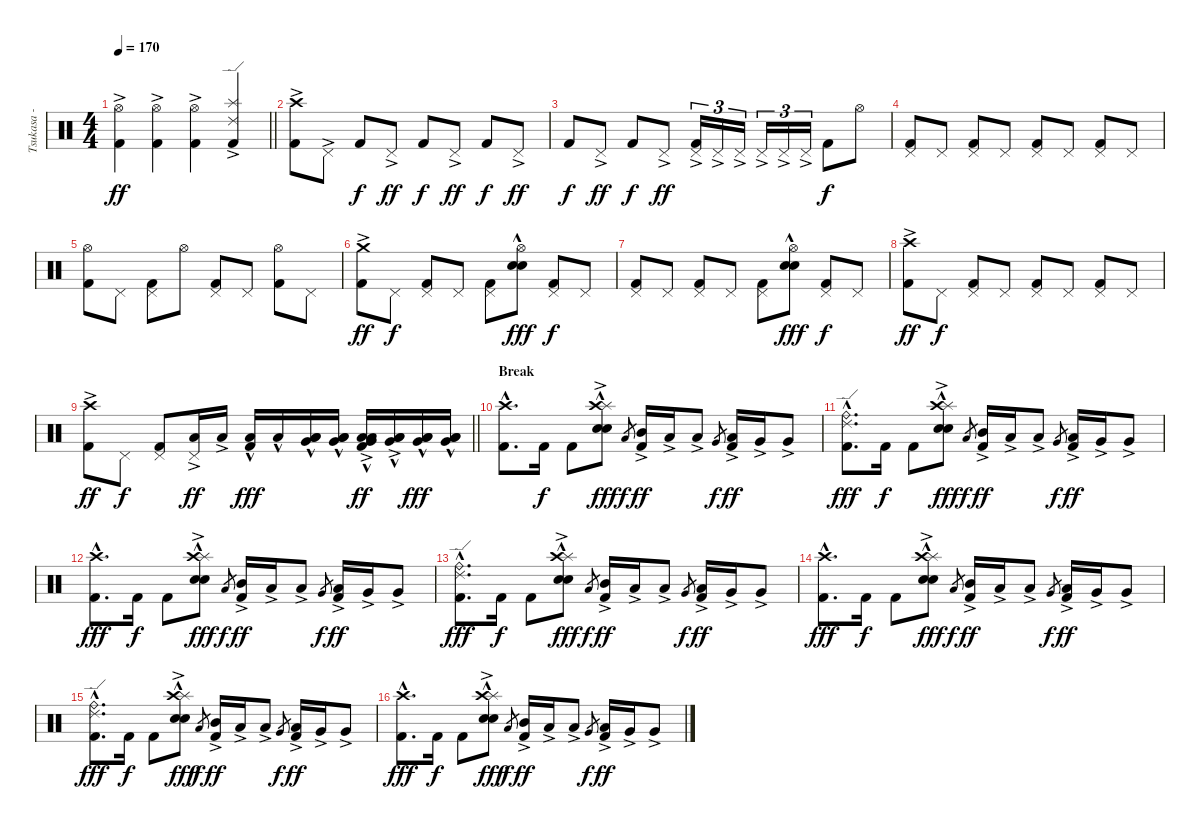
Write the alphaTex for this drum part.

\track ("Tsukasa - Drums" "Tsukasa - ") {instrument percussion}
\staff {score}
\articulation defaults
\ts (4 4)
\tempo 170
\clef neutral
\barLineRight lightlight
\ks c
("Hi-Hat (open)"{ac} "Kick (hit) 2").4{dy ff} ("Hi-Hat (open)"{ac} "Kick (hit) 2").4 ("Hi-Hat (open)"{ac} "Kick (hit) 2").4 ("Splash (hit)"{ac} "Ride (edge) 2"{ac} "Kick (hit) 2").4 |
\section ("" "")
("Crash high (hit)"{ac} "Kick (hit) 2").8 "Pedal Hi-Hat (hit)"{ac}.8 "Kick (hit) 2".8{dy f} "Pedal Hi-Hat (hit)"{ac}.8{dy ff} "Kick (hit) 2".8{dy f} "Pedal Hi-Hat (hit)"{ac}.8{dy ff} "Kick (hit) 2".8{dy f} "Pedal Hi-Hat (hit)"{ac}.8{dy ff} |
"Kick (hit) 2".8{dy f} "Pedal Hi-Hat (hit)"{ac}.8{dy ff} "Kick (hit) 2".8{dy f} "Pedal Hi-Hat (hit)"{ac}.8{dy ff} ("Pedal Hi-Hat (hit)"{ac} "Kick (hit) 2").16{tu (3 2)} "Pedal Hi-Hat (hit)"{ac}.16{tu (3 2)} "Pedal Hi-Hat (hit)"{ac}.16{tu (3 2) beam splitsecondary} "Pedal Hi-Hat (hit)"{ac}.16{tu (3 2)} "Pedal Hi-Hat (hit)"{ac}.16{tu (3 2)} "Pedal Hi-Hat (hit)"{ac}.16{tu (3 2)} "Kick (hit) 2".8{dy f} "Hi-Hat (open)".8 |
("Pedal Hi-Hat (hit)" "Kick (hit) 2").8 "Pedal Hi-Hat (hit)".8 ("Pedal Hi-Hat (hit)" "Kick (hit) 2").8 "Pedal Hi-Hat (hit)".8 ("Pedal Hi-Hat (hit)" "Kick (hit) 2").8 "Pedal Hi-Hat (hit)".8 ("Pedal Hi-Hat (hit)" "Kick (hit) 2").8 "Pedal Hi-Hat (hit)".8 |
("Hi-Hat (open)" "Kick (hit) 2").8 "Pedal Hi-Hat (hit)".8 ("Pedal Hi-Hat (hit)" "Kick (hit) 2").8 "Hi-Hat (open)".8 ("Pedal Hi-Hat (hit)" "Kick (hit) 2").8 "Pedal Hi-Hat (hit)".8 ("Hi-Hat (open)" "Kick (hit) 2").8 "Pedal Hi-Hat (hit)".8 |
("Crash medium (hit)"{ac} "Kick (hit) 2").8{dy ff} "Pedal Hi-Hat (hit)".8{dy f} ("Pedal Hi-Hat (hit)" "Kick (hit) 2").8 "Pedal Hi-Hat (hit)".8 ("Pedal Hi-Hat (hit)" "Kick (hit) 2").8 ("Hi-Hat (open)" "Electric Snare (hit)"{hac} "Snare (hit) 2").8{dy fff} ("Pedal Hi-Hat (hit)" "Kick (hit) 2").8{dy f} "Pedal Hi-Hat (hit)".8 |
("Pedal Hi-Hat (hit)" "Kick (hit) 2").8 "Pedal Hi-Hat (hit)".8 ("Pedal Hi-Hat (hit)" "Kick (hit) 2").8 "Pedal Hi-Hat (hit)".8 ("Pedal Hi-Hat (hit)" "Kick (hit) 2").8 ("Hi-Hat (open)" "Electric Snare (hit)"{hac} "Snare (hit) 2").8{dy fff} ("Pedal Hi-Hat (hit)" "Kick (hit) 2").8{dy f} "Pedal Hi-Hat (hit)".8 |
("Crash high (hit)"{ac} "Kick (hit) 2").8{dy ff} "Pedal Hi-Hat (hit)".8{dy f} ("Pedal Hi-Hat (hit)" "Kick (hit) 2").8 "Pedal Hi-Hat (hit)".8 ("Pedal Hi-Hat (hit)" "Kick (hit) 2").8 "Pedal Hi-Hat (hit)".8 ("Pedal Hi-Hat (hit)" "Kick (hit) 2").8 "Pedal Hi-Hat (hit)".8 |
\barLineRight lightlight
("Crash high (hit)"{ac} "Kick (hit) 2").8{dy ff} "Pedal Hi-Hat (hit)".8{dy f} ("Pedal Hi-Hat (hit)" "Kick (hit) 2").8 ("Pedal Hi-Hat (hit)" "Low Floor Tom (hit)"{ac}).16{dy ff} "Low Floor Tom (hit)"{ac}.16 ("Low Floor Tom (hit)"{hac} "Kick (hit) 2").16{dy fff} "Low Floor Tom (hit)"{hac}.16 ("Low Tom (hit)" "Low Floor Tom (hit)"{hac} "Very Low Tom (hit)").16 ("Low Tom (hit)" "Low Floor Tom (hit)"{hac} "Very Low Tom (hit)").16 ("Low Tom (hit)"{ac} "Low Floor Tom (hit)"{hac} "Very Low Tom (hit)"{ac} "Kick (hit) 2").16{dy ff} ("Low Tom (hit)"{ac} "Low Floor Tom (hit)"{hac} "Very Low Tom (hit)"{ac}).16 ("Low Tom (hit)"{hac} "Low Floor Tom (hit)"{hac} "Very Low Tom (hit)"{hac}).16{dy fff} ("Low Tom (hit)"{hac} "Low Floor Tom (hit)"{hac} "Very Low Tom (hit)"{hac}).16 |
\section ("" "Break")
("Crash high (hit)"{hac} "Kick (hit) 2").8{d} "Kick (hit) 2".16{dy f} "Kick (hit) 2".8 ("Splash (hit)"{hac} "Crash high (hit)"{ac} "Electric Snare (hit)"{hac} "Snare (hit) 2").8{dy fff} "Low Tom (hit)".8{gr dy f} ("Mid Tom (hit)"{ac} "Kick (hit) 2").16{dy ff} "Low Tom (hit)"{ac}.16 "Low Tom (hit)"{ac}.8 "Very Low Tom (hit)".8{gr dy f} ("Low Tom (hit)"{ac} "Kick (hit) 2").16{dy ff} "Very Low Tom (hit)"{ac}.16 "Very Low Tom (hit)"{ac}.8 |
("Ride (bell)"{hac} "Ride (edge) 2" "Kick (hit) 2").8{d dy fff} "Kick (hit) 2".16{dy f} "Kick (hit) 2".8 ("Splash (hit)"{hac} "Crash high (hit)"{ac} "Electric Snare (hit)"{hac} "Snare (hit) 2").8{dy fff} "Low Tom (hit)".8{gr dy f} ("Mid Tom (hit)"{ac} "Kick (hit) 2").16{dy ff} "Low Tom (hit)"{ac}.16 "Low Tom (hit)"{ac}.8 "Very Low Tom (hit)".8{gr dy f} ("Low Tom (hit)"{ac} "Kick (hit) 2").16{dy ff} "Very Low Tom (hit)"{ac}.16 "Very Low Tom (hit)"{ac}.8 |
("Crash high (hit)"{hac} "Kick (hit) 2").8{d dy fff} "Kick (hit) 2".16{dy f} "Kick (hit) 2".8 ("Splash (hit)"{hac} "Crash high (hit)"{ac} "Electric Snare (hit)"{hac} "Snare (hit) 2").8{dy fff} "Low Tom (hit)".8{gr dy f} ("Mid Tom (hit)"{ac} "Kick (hit) 2").16{dy ff} "Low Tom (hit)"{ac}.16 "Low Tom (hit)"{ac}.8 "Very Low Tom (hit)".8{gr dy f} ("Low Tom (hit)"{ac} "Kick (hit) 2").16{dy ff} "Very Low Tom (hit)"{ac}.16 "Very Low Tom (hit)"{ac}.8 |
("Ride (bell)"{hac} "Ride (edge) 2" "Kick (hit) 2").8{d dy fff} "Kick (hit) 2".16{dy f} "Kick (hit) 2".8 ("Splash (hit)"{hac} "Crash high (hit)"{ac} "Electric Snare (hit)"{hac} "Snare (hit) 2").8{dy fff} "Low Tom (hit)".8{gr dy f} ("Mid Tom (hit)"{ac} "Kick (hit) 2").16{dy ff} "Low Tom (hit)"{ac}.16 "Low Tom (hit)"{ac}.8 "Very Low Tom (hit)".8{gr dy f} ("Low Tom (hit)"{ac} "Kick (hit) 2").16{dy ff} "Very Low Tom (hit)"{ac}.16 "Very Low Tom (hit)"{ac}.8 |
("Crash high (hit)"{hac} "Kick (hit) 2").8{d dy fff} "Kick (hit) 2".16{dy f} "Kick (hit) 2".8 ("Splash (hit)"{hac} "Crash high (hit)"{ac} "Electric Snare (hit)"{hac} "Snare (hit) 2").8{dy fff} "Low Tom (hit)".8{gr dy f} ("Mid Tom (hit)"{ac} "Kick (hit) 2").16{dy ff} "Low Tom (hit)"{ac}.16 "Low Tom (hit)"{ac}.8 "Very Low Tom (hit)".8{gr dy f} ("Low Tom (hit)"{ac} "Kick (hit) 2").16{dy ff} "Very Low Tom (hit)"{ac}.16 "Very Low Tom (hit)"{ac}.8 |
("Ride (bell)"{hac} "Ride (edge) 2" "Kick (hit) 2").8{d dy fff} "Kick (hit) 2".16{dy f} "Kick (hit) 2".8 ("Splash (hit)"{hac} "Crash high (hit)"{ac} "Electric Snare (hit)"{hac} "Snare (hit) 2").8{dy fff} "Low Tom (hit)".8{gr dy f} ("Mid Tom (hit)"{ac} "Kick (hit) 2").16{dy ff} "Low Tom (hit)"{ac}.16 "Low Tom (hit)"{ac}.8 "Very Low Tom (hit)".8{gr dy f} ("Low Tom (hit)"{ac} "Kick (hit) 2").16{dy ff} "Very Low Tom (hit)"{ac}.16 "Very Low Tom (hit)"{ac}.8 |
("Crash high (hit)"{hac} "Kick (hit) 2").8{d dy fff} "Kick (hit) 2".16{dy f} "Kick (hit) 2".8 ("Splash (hit)"{hac} "Crash high (hit)"{ac} "Electric Snare (hit)"{hac} "Snare (hit) 2").8{dy fff} "Low Tom (hit)".8{gr dy f} ("Mid Tom (hit)"{ac} "Kick (hit) 2").16{dy ff} "Low Tom (hit)"{ac}.16 "Low Tom (hit)"{ac}.8 "Very Low Tom (hit)".8{gr dy f} ("Low Tom (hit)"{ac} "Kick (hit) 2").16{dy ff} "Very Low Tom (hit)"{ac}.16 "Very Low Tom (hit)"{ac}.8
